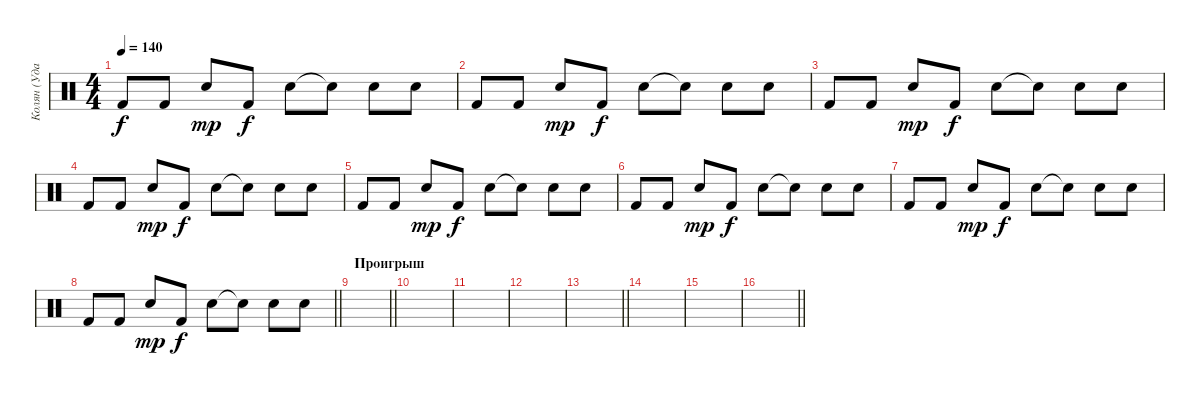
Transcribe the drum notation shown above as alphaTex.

\track ("Колян (Ударные)" "Колян (Уда") {instrument percussion}
\staff
\articulation defaults
\ts (4 4)
\tempo 140
\clef neutral
\ks c "Kick (hit) 2".8{dy f} "Kick (hit) 2".8 "Snare (hit) 2".8{dy mp} "Kick (hit) 2".8{dy f} "Snare (hit) 2".8 "Snare (hit)"{t}.8 "Snare (hit) 2".8 "Snare (hit) 2".8
|
"Kick (hit) 2".8 "Kick (hit) 2".8 "Snare (hit) 2".8{dy mp} "Kick (hit) 2".8{dy f} "Snare (hit) 2".8 "Snare (hit)"{t}.8 "Snare (hit) 2".8 "Snare (hit) 2".8 |
"Kick (hit) 2".8 "Kick (hit) 2".8 "Snare (hit) 2".8{dy mp} "Kick (hit) 2".8{dy f} "Snare (hit) 2".8 "Snare (hit)"{t}.8 "Snare (hit) 2".8 "Snare (hit) 2".8 |
"Kick (hit) 2".8 "Kick (hit) 2".8 "Snare (hit) 2".8{dy mp} "Kick (hit) 2".8{dy f} "Snare (hit) 2".8 "Snare (hit)"{t}.8 "Snare (hit) 2".8 "Snare (hit) 2".8 |
"Kick (hit) 2".8 "Kick (hit) 2".8 "Snare (hit) 2".8{dy mp} "Kick (hit) 2".8{dy f} "Snare (hit) 2".8 "Snare (hit)"{t}.8 "Snare (hit) 2".8 "Snare (hit) 2".8 |
"Kick (hit) 2".8 "Kick (hit) 2".8 "Snare (hit) 2".8{dy mp} "Kick (hit) 2".8{dy f} "Snare (hit) 2".8 "Snare (hit)"{t}.8 "Snare (hit) 2".8 "Snare (hit) 2".8 |
"Kick (hit) 2".8 "Kick (hit) 2".8 "Snare (hit) 2".8{dy mp} "Kick (hit) 2".8{dy f} "Snare (hit) 2".8 "Snare (hit)"{t}.8 "Snare (hit) 2".8 "Snare (hit) 2".8 |
\barLineRight lightlight "Kick (hit) 2".8 "Kick (hit) 2".8 "Snare (hit) 2".8{dy mp} "Kick (hit) 2".8{dy f} "Snare (hit) 2".8 "Snare (hit)"{t}.8 "Snare (hit) 2".8 "Snare (hit) 2".8
|
\section ("" "Проигрыш")
\barLineRight lightlight
|
|
|
|
\barLineRight lightlight
|
|
|
\barLineRight lightlight
